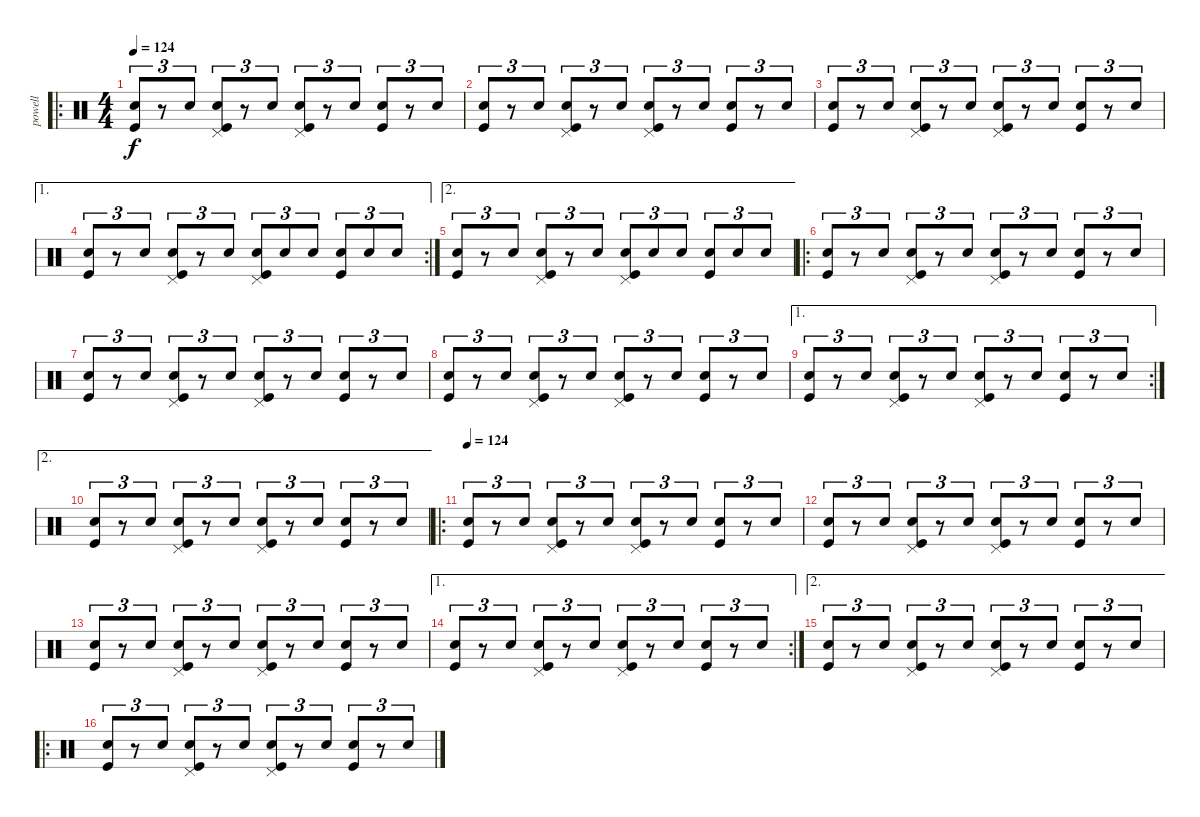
\track ("powell" "powell") {instrument percussion}
\staff {score}
\articulation defaults
\ro
\ts (4 4)
\tempo 124
\clef neutral
\ks c
("Snare (hit) 2" "Kick (hit)").8{tu (3 2) dy f volume 9} r.8{tu (3 2)} "Snare (hit) 2".8{tu (3 2) volume 5} ("Snare (hit) 2" "Pedal Hi-Hat (hit)" "Kick (hit)").8{tu (3 2) volume 7} r.8{tu (3 2)} "Snare (hit) 2".8{tu (3 2) volume 8} ("Snare (hit) 2" "Pedal Hi-Hat (hit)" "Kick (hit)").8{tu (3 2)} r.8{tu (3 2)} "Snare (hit) 2".8{tu (3 2)} ("Snare (hit) 2" "Kick (hit)").8{tu (3 2)} r.8{tu (3 2)} "Snare (hit) 2".8{tu (3 2)} |
("Snare (hit) 2" "Kick (hit)").8{tu (3 2) volume 9} r.8{tu (3 2)} "Snare (hit) 2".8{tu (3 2) volume 5} ("Snare (hit) 2" "Pedal Hi-Hat (hit)" "Kick (hit)").8{tu (3 2) volume 7} r.8{tu (3 2)} "Snare (hit) 2".8{tu (3 2) volume 8} ("Snare (hit) 2" "Pedal Hi-Hat (hit)" "Kick (hit)").8{tu (3 2)} r.8{tu (3 2)} "Snare (hit) 2".8{tu (3 2)} ("Snare (hit) 2" "Kick (hit)").8{tu (3 2)} r.8{tu (3 2)} "Snare (hit) 2".8{tu (3 2)} |
("Snare (hit) 2" "Kick (hit)").8{tu (3 2) volume 9} r.8{tu (3 2)} "Snare (hit) 2".8{tu (3 2) volume 5} ("Snare (hit) 2" "Pedal Hi-Hat (hit)" "Kick (hit)").8{tu (3 2) volume 7} r.8{tu (3 2)} "Snare (hit) 2".8{tu (3 2) volume 8} ("Snare (hit) 2" "Pedal Hi-Hat (hit)" "Kick (hit)").8{tu (3 2)} r.8{tu (3 2)} "Snare (hit) 2".8{tu (3 2)} ("Snare (hit) 2" "Kick (hit)").8{tu (3 2)} r.8{tu (3 2)} "Snare (hit) 2".8{tu (3 2)} |
\ae 1
\rc 2
("Snare (hit) 2" "Kick (hit)").8{tu (3 2) volume 9} r.8{tu (3 2)} "Snare (hit) 2".8{tu (3 2) volume 5} ("Snare (hit) 2" "Pedal Hi-Hat (hit)" "Kick (hit)").8{tu (3 2) volume 7} r.8{tu (3 2)} "Snare (hit) 2".8{tu (3 2) volume 8} ("Snare (hit) 2" "Pedal Hi-Hat (hit)" "Kick (hit)").8{tu (3 2)} "Snare (hit) 2".8{tu (3 2)} "Snare (hit) 2".8{tu (3 2)} ("Snare (hit) 2" "Kick (hit)").8{tu (3 2)} "Snare (hit) 2".8{tu (3 2) volume 2} "Snare (hit) 2".8{tu (3 2) volume 10} |
\ae 2
("Snare (hit) 2" "Kick (hit)").8{tu (3 2) volume 9} r.8{tu (3 2)} "Snare (hit) 2".8{tu (3 2) volume 5} ("Snare (hit) 2" "Pedal Hi-Hat (hit)" "Kick (hit)").8{tu (3 2) volume 7} r.8{tu (3 2)} "Snare (hit) 2".8{tu (3 2) volume 8} ("Snare (hit) 2" "Pedal Hi-Hat (hit)" "Kick (hit)").8{tu (3 2)} "Snare (hit) 2".8{tu (3 2)} "Snare (hit) 2".8{tu (3 2)} ("Snare (hit) 2" "Kick (hit)").8{tu (3 2)} "Snare (hit) 2".8{tu (3 2) volume 2} "Snare (hit) 2".8{tu (3 2) volume 10} |
\ro
("Snare (hit) 2" "Kick (hit)").8{tu (3 2) volume 9} r.8{tu (3 2)} "Snare (hit) 2".8{tu (3 2) volume 5} ("Snare (hit) 2" "Pedal Hi-Hat (hit)" "Kick (hit)").8{tu (3 2) volume 7} r.8{tu (3 2)} "Snare (hit) 2".8{tu (3 2) volume 8} ("Snare (hit) 2" "Pedal Hi-Hat (hit)" "Kick (hit)").8{tu (3 2)} r.8{tu (3 2)} "Snare (hit) 2".8{tu (3 2)} ("Snare (hit) 2" "Kick (hit)").8{tu (3 2)} r.8{tu (3 2)} "Snare (hit) 2".8{tu (3 2)} |
("Snare (hit) 2" "Kick (hit)").8{tu (3 2) volume 9} r.8{tu (3 2)} "Snare (hit) 2".8{tu (3 2) volume 5} ("Snare (hit) 2" "Pedal Hi-Hat (hit)" "Kick (hit)").8{tu (3 2) volume 7} r.8{tu (3 2)} "Snare (hit) 2".8{tu (3 2) volume 8} ("Snare (hit) 2" "Pedal Hi-Hat (hit)" "Kick (hit)").8{tu (3 2)} r.8{tu (3 2)} "Snare (hit) 2".8{tu (3 2)} ("Snare (hit) 2" "Kick (hit)").8{tu (3 2)} r.8{tu (3 2)} "Snare (hit) 2".8{tu (3 2)} |
("Snare (hit) 2" "Kick (hit)").8{tu (3 2) volume 9} r.8{tu (3 2)} "Snare (hit) 2".8{tu (3 2) volume 5} ("Snare (hit) 2" "Pedal Hi-Hat (hit)" "Kick (hit)").8{tu (3 2) volume 7} r.8{tu (3 2)} "Snare (hit) 2".8{tu (3 2) volume 8} ("Snare (hit) 2" "Pedal Hi-Hat (hit)" "Kick (hit)").8{tu (3 2)} r.8{tu (3 2)} "Snare (hit) 2".8{tu (3 2)} ("Snare (hit) 2" "Kick (hit)").8{tu (3 2)} r.8{tu (3 2)} "Snare (hit) 2".8{tu (3 2)} |
\ae 1
\rc 2
("Snare (hit) 2" "Kick (hit)").8{tu (3 2) volume 9} r.8{tu (3 2)} "Snare (hit) 2".8{tu (3 2) volume 5} ("Snare (hit) 2" "Pedal Hi-Hat (hit)" "Kick (hit)").8{tu (3 2) volume 7} r.8{tu (3 2)} "Snare (hit) 2".8{tu (3 2) volume 8} ("Snare (hit) 2" "Pedal Hi-Hat (hit)" "Kick (hit)").8{tu (3 2)} r.8{tu (3 2)} "Snare (hit) 2".8{tu (3 2)} ("Snare (hit) 2" "Kick (hit)").8{tu (3 2)} r.8{tu (3 2)} "Snare (hit) 2".8{tu (3 2)} |
\ae 2
("Snare (hit) 2" "Kick (hit)").8{tu (3 2) volume 9} r.8{tu (3 2)} "Snare (hit) 2".8{tu (3 2) volume 5} ("Snare (hit) 2" "Pedal Hi-Hat (hit)" "Kick (hit)").8{tu (3 2) volume 7} r.8{tu (3 2)} "Snare (hit) 2".8{tu (3 2) volume 8} ("Snare (hit) 2" "Pedal Hi-Hat (hit)" "Kick (hit)").8{tu (3 2)} r.8{tu (3 2)} "Snare (hit) 2".8{tu (3 2)} ("Snare (hit) 2" "Kick (hit)").8{tu (3 2)} r.8{tu (3 2)} "Snare (hit) 2".8{tu (3 2)} |
\ro
\tempo 124
("Snare (hit) 2" "Kick (hit)").8{tu (3 2) volume 9} r.8{tu (3 2)} "Snare (hit) 2".8{tu (3 2) volume 5} ("Snare (hit) 2" "Pedal Hi-Hat (hit)" "Kick (hit)").8{tu (3 2) volume 7} r.8{tu (3 2)} "Snare (hit) 2".8{tu (3 2) volume 8} ("Snare (hit) 2" "Pedal Hi-Hat (hit)" "Kick (hit)").8{tu (3 2)} r.8{tu (3 2)} "Snare (hit) 2".8{tu (3 2)} ("Snare (hit) 2" "Kick (hit)").8{tu (3 2)} r.8{tu (3 2)} "Snare (hit) 2".8{tu (3 2)} |
("Snare (hit) 2" "Kick (hit)").8{tu (3 2) volume 9} r.8{tu (3 2)} "Snare (hit) 2".8{tu (3 2) volume 5} ("Snare (hit) 2" "Pedal Hi-Hat (hit)" "Kick (hit)").8{tu (3 2) volume 7} r.8{tu (3 2)} "Snare (hit) 2".8{tu (3 2) volume 8} ("Snare (hit) 2" "Pedal Hi-Hat (hit)" "Kick (hit)").8{tu (3 2)} r.8{tu (3 2)} "Snare (hit) 2".8{tu (3 2)} ("Snare (hit) 2" "Kick (hit)").8{tu (3 2)} r.8{tu (3 2)} "Snare (hit) 2".8{tu (3 2)} |
("Snare (hit) 2" "Kick (hit)").8{tu (3 2) volume 9} r.8{tu (3 2)} "Snare (hit) 2".8{tu (3 2) volume 5} ("Snare (hit) 2" "Pedal Hi-Hat (hit)" "Kick (hit)").8{tu (3 2) volume 7} r.8{tu (3 2)} "Snare (hit) 2".8{tu (3 2) volume 8} ("Snare (hit) 2" "Pedal Hi-Hat (hit)" "Kick (hit)").8{tu (3 2)} r.8{tu (3 2)} "Snare (hit) 2".8{tu (3 2)} ("Snare (hit) 2" "Kick (hit)").8{tu (3 2)} r.8{tu (3 2)} "Snare (hit) 2".8{tu (3 2)} |
\ae 1
\rc 2
("Snare (hit) 2" "Kick (hit)").8{tu (3 2) volume 9} r.8{tu (3 2)} "Snare (hit) 2".8{tu (3 2) volume 5} ("Snare (hit) 2" "Pedal Hi-Hat (hit)" "Kick (hit)").8{tu (3 2) volume 7} r.8{tu (3 2)} "Snare (hit) 2".8{tu (3 2) volume 8} ("Snare (hit) 2" "Pedal Hi-Hat (hit)" "Kick (hit)").8{tu (3 2)} r.8{tu (3 2)} "Snare (hit) 2".8{tu (3 2)} ("Snare (hit) 2" "Kick (hit)").8{tu (3 2)} r.8{tu (3 2)} "Snare (hit) 2".8{tu (3 2)} |
\ae 2
("Snare (hit) 2" "Kick (hit)").8{tu (3 2) volume 9} r.8{tu (3 2)} "Snare (hit) 2".8{tu (3 2) volume 5} ("Snare (hit) 2" "Pedal Hi-Hat (hit)" "Kick (hit)").8{tu (3 2) volume 7} r.8{tu (3 2)} "Snare (hit) 2".8{tu (3 2) volume 8} ("Snare (hit) 2" "Pedal Hi-Hat (hit)" "Kick (hit)").8{tu (3 2)} r.8{tu (3 2)} "Snare (hit) 2".8{tu (3 2)} ("Snare (hit) 2" "Kick (hit)").8{tu (3 2)} r.8{tu (3 2)} "Snare (hit) 2".8{tu (3 2)} |
\ro
("Snare (hit) 2" "Kick (hit)").8{tu (3 2) volume 9} r.8{tu (3 2)} "Snare (hit) 2".8{tu (3 2) volume 5} ("Snare (hit) 2" "Pedal Hi-Hat (hit)" "Kick (hit)").8{tu (3 2) volume 7} r.8{tu (3 2)} "Snare (hit) 2".8{tu (3 2) volume 8} ("Snare (hit) 2" "Pedal Hi-Hat (hit)" "Kick (hit)").8{tu (3 2)} r.8{tu (3 2)} "Snare (hit) 2".8{tu (3 2)} ("Snare (hit) 2" "Kick (hit)").8{tu (3 2)} r.8{tu (3 2)} "Snare (hit) 2".8{tu (3 2)}
